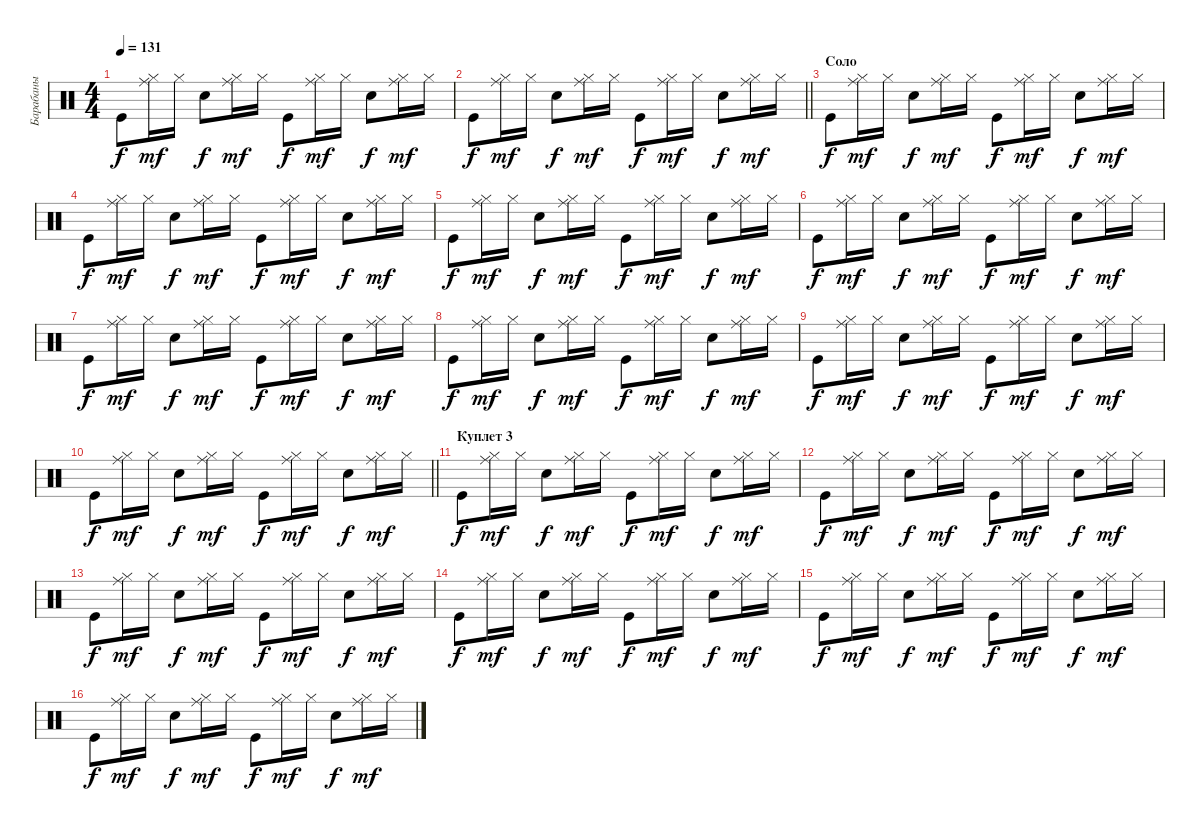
\track ("Барабаны" "Барабаны") {instrument percussion}
\staff {score}
\articulation defaults
\ts (4 4)
\tempo 131
\clef neutral
\ks c "Kick (hit)".8{dy f}
("Hi-Hat (closed)" "Ride (middle)").16{dy mf} "Hi-Hat (closed)".16 "Snare (hit) 2".8{dy f} ("Hi-Hat (closed)" "Ride (middle)").16{dy mf} "Hi-Hat (closed)".16 "Kick (hit)".8{dy f} ("Hi-Hat (closed)" "Ride (middle)").16{dy mf} "Hi-Hat (closed)".16 "Snare (hit) 2".8{dy f} ("Hi-Hat (closed)" "Ride (middle)").16{dy mf} "Hi-Hat (closed)".16 |
\barLineRight lightlight "Kick (hit)".8{dy f}
("Hi-Hat (closed)" "Ride (middle)").16{dy mf} "Hi-Hat (closed)".16 "Snare (hit) 2".8{dy f} ("Hi-Hat (closed)" "Ride (middle)").16{dy mf} "Hi-Hat (closed)".16 "Kick (hit)".8{dy f} ("Hi-Hat (closed)" "Ride (middle)").16{dy mf} "Hi-Hat (closed)".16 "Snare (hit) 2".8{dy f} ("Hi-Hat (closed)" "Ride (middle)").16{dy mf} "Hi-Hat (closed)".16 |
\section ("" "Соло")
"Kick (hit)".8{dy f} ("Hi-Hat (closed)" "Ride (middle)").16{dy mf} "Hi-Hat (closed)".16 "Snare (hit) 2".8{dy f} ("Hi-Hat (closed)" "Ride (middle)").16{dy mf} "Hi-Hat (closed)".16 "Kick (hit)".8{dy f} ("Hi-Hat (closed)" "Ride (middle)").16{dy mf} "Hi-Hat (closed)".16 "Snare (hit) 2".8{dy f} ("Hi-Hat (closed)" "Ride (middle)").16{dy mf} "Hi-Hat (closed)".16 |
"Kick (hit)".8{dy f} ("Hi-Hat (closed)" "Ride (middle)").16{dy mf} "Hi-Hat (closed)".16 "Snare (hit) 2".8{dy f} ("Hi-Hat (closed)" "Ride (middle)").16{dy mf} "Hi-Hat (closed)".16 "Kick (hit)".8{dy f} ("Hi-Hat (closed)" "Ride (middle)").16{dy mf} "Hi-Hat (closed)".16 "Snare (hit) 2".8{dy f} ("Hi-Hat (closed)" "Ride (middle)").16{dy mf} "Hi-Hat (closed)".16 |
"Kick (hit)".8{dy f} ("Hi-Hat (closed)" "Ride (middle)").16{dy mf} "Hi-Hat (closed)".16 "Snare (hit) 2".8{dy f} ("Hi-Hat (closed)" "Ride (middle)").16{dy mf} "Hi-Hat (closed)".16 "Kick (hit)".8{dy f} ("Hi-Hat (closed)" "Ride (middle)").16{dy mf} "Hi-Hat (closed)".16 "Snare (hit) 2".8{dy f} ("Hi-Hat (closed)" "Ride (middle)").16{dy mf} "Hi-Hat (closed)".16 |
"Kick (hit)".8{dy f} ("Hi-Hat (closed)" "Ride (middle)").16{dy mf} "Hi-Hat (closed)".16 "Snare (hit) 2".8{dy f} ("Hi-Hat (closed)" "Ride (middle)").16{dy mf} "Hi-Hat (closed)".16 "Kick (hit)".8{dy f} ("Hi-Hat (closed)" "Ride (middle)").16{dy mf} "Hi-Hat (closed)".16 "Snare (hit) 2".8{dy f} ("Hi-Hat (closed)" "Ride (middle)").16{dy mf} "Hi-Hat (closed)".16 |
"Kick (hit)".8{dy f} ("Hi-Hat (closed)" "Ride (middle)").16{dy mf} "Hi-Hat (closed)".16 "Snare (hit) 2".8{dy f} ("Hi-Hat (closed)" "Ride (middle)").16{dy mf} "Hi-Hat (closed)".16 "Kick (hit)".8{dy f} ("Hi-Hat (closed)" "Ride (middle)").16{dy mf} "Hi-Hat (closed)".16 "Snare (hit) 2".8{dy f} ("Hi-Hat (closed)" "Ride (middle)").16{dy mf} "Hi-Hat (closed)".16 |
"Kick (hit)".8{dy f} ("Hi-Hat (closed)" "Ride (middle)").16{dy mf} "Hi-Hat (closed)".16 "Snare (hit) 2".8{dy f} ("Hi-Hat (closed)" "Ride (middle)").16{dy mf} "Hi-Hat (closed)".16 "Kick (hit)".8{dy f} ("Hi-Hat (closed)" "Ride (middle)").16{dy mf} "Hi-Hat (closed)".16 "Snare (hit) 2".8{dy f} ("Hi-Hat (closed)" "Ride (middle)").16{dy mf} "Hi-Hat (closed)".16 |
"Kick (hit)".8{dy f} ("Hi-Hat (closed)" "Ride (middle)").16{dy mf} "Hi-Hat (closed)".16 "Snare (hit) 2".8{dy f} ("Hi-Hat (closed)" "Ride (middle)").16{dy mf} "Hi-Hat (closed)".16 "Kick (hit)".8{dy f} ("Hi-Hat (closed)" "Ride (middle)").16{dy mf} "Hi-Hat (closed)".16 "Snare (hit) 2".8{dy f} ("Hi-Hat (closed)" "Ride (middle)").16{dy mf} "Hi-Hat (closed)".16 |
\barLineRight lightlight "Kick (hit)".8{dy f}
("Hi-Hat (closed)" "Ride (middle)").16{dy mf} "Hi-Hat (closed)".16 "Snare (hit) 2".8{dy f} ("Hi-Hat (closed)" "Ride (middle)").16{dy mf} "Hi-Hat (closed)".16 "Kick (hit)".8{dy f} ("Hi-Hat (closed)" "Ride (middle)").16{dy mf} "Hi-Hat (closed)".16 "Snare (hit) 2".8{dy f} ("Hi-Hat (closed)" "Ride (middle)").16{dy mf} "Hi-Hat (closed)".16 |
\section ("" "Куплет 3")
"Kick (hit)".8{dy f} ("Hi-Hat (closed)" "Ride (middle)").16{dy mf} "Hi-Hat (closed)".16 "Snare (hit) 2".8{dy f} ("Hi-Hat (closed)" "Ride (middle)").16{dy mf} "Hi-Hat (closed)".16 "Kick (hit)".8{dy f} ("Hi-Hat (closed)" "Ride (middle)").16{dy mf} "Hi-Hat (closed)".16 "Snare (hit) 2".8{dy f} ("Hi-Hat (closed)" "Ride (middle)").16{dy mf} "Hi-Hat (closed)".16 |
"Kick (hit)".8{dy f} ("Hi-Hat (closed)" "Ride (middle)").16{dy mf} "Hi-Hat (closed)".16 "Snare (hit) 2".8{dy f} ("Hi-Hat (closed)" "Ride (middle)").16{dy mf} "Hi-Hat (closed)".16 "Kick (hit)".8{dy f} ("Hi-Hat (closed)" "Ride (middle)").16{dy mf} "Hi-Hat (closed)".16 "Snare (hit) 2".8{dy f} ("Hi-Hat (closed)" "Ride (middle)").16{dy mf} "Hi-Hat (closed)".16 |
"Kick (hit)".8{dy f} ("Hi-Hat (closed)" "Ride (middle)").16{dy mf} "Hi-Hat (closed)".16 "Snare (hit) 2".8{dy f} ("Hi-Hat (closed)" "Ride (middle)").16{dy mf} "Hi-Hat (closed)".16 "Kick (hit)".8{dy f} ("Hi-Hat (closed)" "Ride (middle)").16{dy mf} "Hi-Hat (closed)".16 "Snare (hit) 2".8{dy f} ("Hi-Hat (closed)" "Ride (middle)").16{dy mf} "Hi-Hat (closed)".16 |
"Kick (hit)".8{dy f} ("Hi-Hat (closed)" "Ride (middle)").16{dy mf} "Hi-Hat (closed)".16 "Snare (hit) 2".8{dy f} ("Hi-Hat (closed)" "Ride (middle)").16{dy mf} "Hi-Hat (closed)".16 "Kick (hit)".8{dy f} ("Hi-Hat (closed)" "Ride (middle)").16{dy mf} "Hi-Hat (closed)".16 "Snare (hit) 2".8{dy f} ("Hi-Hat (closed)" "Ride (middle)").16{dy mf} "Hi-Hat (closed)".16 |
"Kick (hit)".8{dy f} ("Hi-Hat (closed)" "Ride (middle)").16{dy mf} "Hi-Hat (closed)".16 "Snare (hit) 2".8{dy f} ("Hi-Hat (closed)" "Ride (middle)").16{dy mf} "Hi-Hat (closed)".16 "Kick (hit)".8{dy f} ("Hi-Hat (closed)" "Ride (middle)").16{dy mf} "Hi-Hat (closed)".16 "Snare (hit) 2".8{dy f} ("Hi-Hat (closed)" "Ride (middle)").16{dy mf} "Hi-Hat (closed)".16 |
"Kick (hit)".8{dy f} ("Hi-Hat (closed)" "Ride (middle)").16{dy mf} "Hi-Hat (closed)".16 "Snare (hit) 2".8{dy f} ("Hi-Hat (closed)" "Ride (middle)").16{dy mf} "Hi-Hat (closed)".16 "Kick (hit)".8{dy f} ("Hi-Hat (closed)" "Ride (middle)").16{dy mf} "Hi-Hat (closed)".16 "Snare (hit) 2".8{dy f} ("Hi-Hat (closed)" "Ride (middle)").16{dy mf} "Hi-Hat (closed)".16
